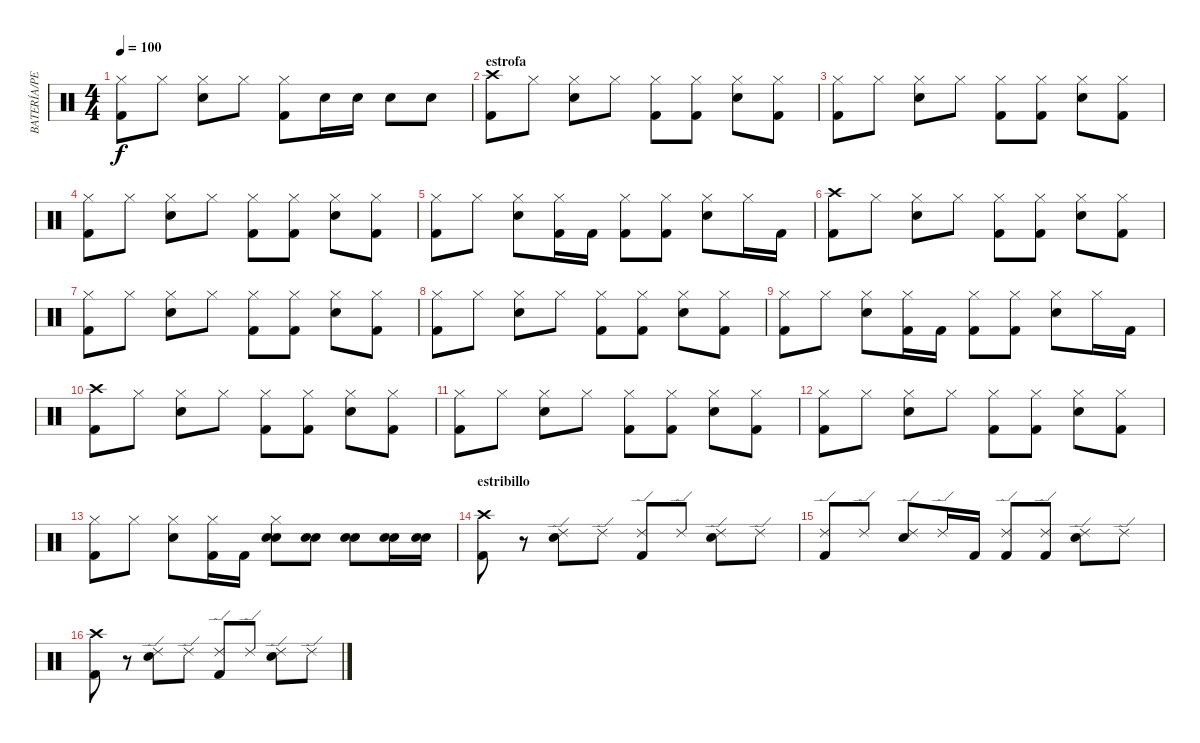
\track ("BATERÍA/PERCUSIÓN" "BATERÍA/PE") {instrument percussion}
\staff {score}
\articulation defaults
\ts (4 4)
\tempo 100
\clef neutral
\ks c
("Hi-Hat (closed)" "Kick (hit) 2").8{dy f} "Hi-Hat (closed)".8 ("Hand Clap (hit)" "Hi-Hat (closed)").8 "Hi-Hat (closed)".8 ("Hi-Hat (closed)" "Kick (hit) 2").8 "Hand Clap (hit)".16 "Hand Clap (hit)".16 "Hand Clap (hit)".8 "Hand Clap (hit)".8 |
\section ("" "estrofa")
("Crash high (hit)" "Kick (hit) 2").8 "Hi-Hat (closed)".8 ("Hi-Hat (closed)" "Hand Clap (hit)").8 "Hi-Hat (closed)".8 ("Hi-Hat (closed)" "Kick (hit) 2").8 ("Kick (hit) 2" "Hi-Hat (closed)").8 ("Hi-Hat (closed)" "Hand Clap (hit)").8 ("Kick (hit) 2" "Hi-Hat (closed)").8 |
("Hi-Hat (closed)" "Kick (hit) 2").8 "Hi-Hat (closed)".8 ("Hi-Hat (closed)" "Hand Clap (hit)").8 "Hi-Hat (closed)".8 ("Hi-Hat (closed)" "Kick (hit) 2").8 ("Kick (hit) 2" "Hi-Hat (closed)").8 ("Hi-Hat (closed)" "Hand Clap (hit)").8 ("Kick (hit) 2" "Hi-Hat (closed)").8 |
("Hi-Hat (closed)" "Kick (hit) 2").8 "Hi-Hat (closed)".8 ("Hi-Hat (closed)" "Hand Clap (hit)").8 "Hi-Hat (closed)".8 ("Hi-Hat (closed)" "Kick (hit) 2").8 ("Kick (hit) 2" "Hi-Hat (closed)").8 ("Hi-Hat (closed)" "Hand Clap (hit)").8 ("Kick (hit) 2" "Hi-Hat (closed)").8 |
("Hi-Hat (closed)" "Kick (hit) 2").8 "Hi-Hat (closed)".8 ("Hi-Hat (closed)" "Hand Clap (hit)").8 ("Hi-Hat (closed)" "Kick (hit) 2").16 "Kick (hit) 2".16 ("Hi-Hat (closed)" "Kick (hit) 2").8 ("Kick (hit) 2" "Hi-Hat (closed)").8 ("Hi-Hat (closed)" "Hand Clap (hit)").8 "Hi-Hat (closed)".16 "Kick (hit) 2".16 |
("Crash high (hit)" "Kick (hit) 2").8 "Hi-Hat (closed)".8 ("Hi-Hat (closed)" "Hand Clap (hit)").8 "Hi-Hat (closed)".8 ("Hi-Hat (closed)" "Kick (hit) 2").8 ("Kick (hit) 2" "Hi-Hat (closed)").8 ("Hi-Hat (closed)" "Hand Clap (hit)").8 ("Kick (hit) 2" "Hi-Hat (closed)").8 |
("Hi-Hat (closed)" "Kick (hit) 2").8 "Hi-Hat (closed)".8 ("Hi-Hat (closed)" "Hand Clap (hit)").8 "Hi-Hat (closed)".8 ("Hi-Hat (closed)" "Kick (hit) 2").8 ("Kick (hit) 2" "Hi-Hat (closed)").8 ("Hi-Hat (closed)" "Hand Clap (hit)").8 ("Kick (hit) 2" "Hi-Hat (closed)").8 |
("Hi-Hat (closed)" "Kick (hit) 2").8 "Hi-Hat (closed)".8 ("Hi-Hat (closed)" "Hand Clap (hit)").8 "Hi-Hat (closed)".8 ("Hi-Hat (closed)" "Kick (hit) 2").8 ("Kick (hit) 2" "Hi-Hat (closed)").8 ("Hi-Hat (closed)" "Hand Clap (hit)").8 ("Kick (hit) 2" "Hi-Hat (closed)").8 |
("Hi-Hat (closed)" "Kick (hit) 2").8 "Hi-Hat (closed)".8 ("Hi-Hat (closed)" "Hand Clap (hit)").8 ("Hi-Hat (closed)" "Kick (hit) 2").16 "Kick (hit) 2".16 ("Hi-Hat (closed)" "Kick (hit) 2").8 ("Kick (hit) 2" "Hi-Hat (closed)").8 ("Hi-Hat (closed)" "Hand Clap (hit)").8 "Hi-Hat (closed)".16 "Kick (hit) 2".16 |
("Crash high (hit)" "Kick (hit) 2").8{volume 16} "Hi-Hat (closed)".8 ("Hi-Hat (closed)" "Hand Clap (hit)").8 "Hi-Hat (closed)".8 ("Hi-Hat (closed)" "Kick (hit) 2").8 ("Kick (hit) 2" "Hi-Hat (closed)").8 ("Hi-Hat (closed)" "Hand Clap (hit)").8 ("Kick (hit) 2" "Hi-Hat (closed)").8 |
("Hi-Hat (closed)" "Kick (hit) 2").8 "Hi-Hat (closed)".8 ("Hi-Hat (closed)" "Hand Clap (hit)").8 "Hi-Hat (closed)".8 ("Hi-Hat (closed)" "Kick (hit) 2").8 ("Kick (hit) 2" "Hi-Hat (closed)").8 ("Hi-Hat (closed)" "Hand Clap (hit)").8 ("Kick (hit) 2" "Hi-Hat (closed)").8 |
("Hi-Hat (closed)" "Kick (hit) 2").8 "Hi-Hat (closed)".8 ("Hi-Hat (closed)" "Hand Clap (hit)").8 "Hi-Hat (closed)".8 ("Hi-Hat (closed)" "Kick (hit) 2").8 ("Kick (hit) 2" "Hi-Hat (closed)").8 ("Hi-Hat (closed)" "Hand Clap (hit)").8 ("Kick (hit) 2" "Hi-Hat (closed)").8 |
("Hi-Hat (closed)" "Kick (hit) 2").8 "Hi-Hat (closed)".8 ("Hi-Hat (closed)" "Hand Clap (hit)").8 ("Hi-Hat (closed)" "Kick (hit) 2").16 "Kick (hit) 2".16 ("Hi-Hat (closed)" "Hand Clap (hit)" "Snare (hit) 2").8 ("Snare (hit) 2" "Hand Clap (hit)").8 ("Snare (hit) 2" "Hand Clap (hit)").8 ("Snare (hit) 2" "Hand Clap (hit)").16 ("Snare (hit) 2" "Hand Clap (hit)").16 |
\section ("" "estribillo")
("Crash high (hit)" "Kick (hit) 2").8 r.8 ("Ride (edge) 2" "Electric Snare (hit)").8 "Ride (edge) 2".8 ("Ride (edge) 2" "Kick (hit) 2").8 "Ride (edge) 2".8 ("Ride (edge) 2" "Electric Snare (hit)").8 "Ride (edge) 2".8 |
("Ride (edge) 2" "Kick (hit) 2").8 "Ride (edge) 2".8 ("Ride (edge) 2" "Electric Snare (hit)").8 "Ride (edge) 2".16 "Kick (hit) 2".16 ("Ride (edge) 2" "Kick (hit) 2").8 ("Ride (edge) 2" "Kick (hit) 2").8 ("Ride (edge) 2" "Electric Snare (hit)").8 "Ride (edge) 2".8 |
("Crash high (hit)" "Kick (hit) 2").8 r.8 ("Ride (edge) 2" "Electric Snare (hit)").8 "Ride (edge) 2".8 ("Ride (edge) 2" "Kick (hit) 2").8 "Ride (edge) 2".8 ("Ride (edge) 2" "Electric Snare (hit)").8 "Ride (edge) 2".8
